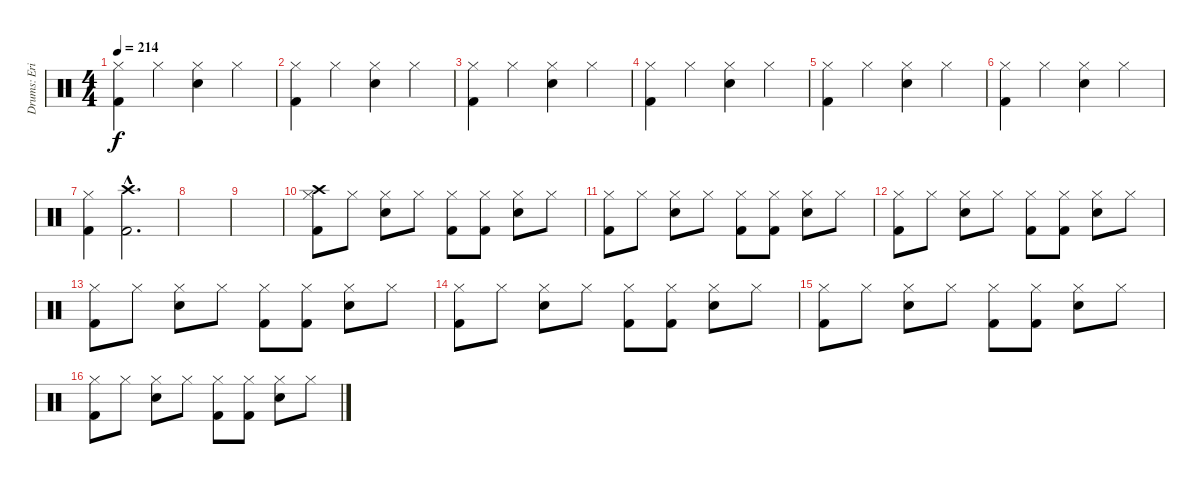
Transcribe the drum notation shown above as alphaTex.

\track ("Drums: Erik Sandin" "Drums: Eri") {instrument percussion}
\staff {score}
\articulation defaults
\ts (4 4)
\tempo 214
\clef neutral
\ks c
("Hi-Hat (closed)" "Kick (hit) 2").4{dy f} "Hi-Hat (closed)".4 ("Hi-Hat (closed)" "Electric Snare (hit)").4 "Hi-Hat (closed)".4 |
("Hi-Hat (closed)" "Kick (hit) 2").4 "Hi-Hat (closed)".4 ("Hi-Hat (closed)" "Electric Snare (hit)").4 "Hi-Hat (closed)".4 |
("Hi-Hat (closed)" "Kick (hit) 2").4 "Hi-Hat (closed)".4 ("Hi-Hat (closed)" "Electric Snare (hit)").4 "Hi-Hat (closed)".4 |
("Hi-Hat (closed)" "Kick (hit) 2").4 "Hi-Hat (closed)".4 ("Hi-Hat (closed)" "Electric Snare (hit)").4 "Hi-Hat (closed)".4 |
("Hi-Hat (closed)" "Kick (hit) 2").4 "Hi-Hat (closed)".4 ("Hi-Hat (closed)" "Electric Snare (hit)").4 "Hi-Hat (closed)".4 |
("Hi-Hat (closed)" "Kick (hit) 2").4 "Hi-Hat (closed)".4 ("Hi-Hat (closed)" "Electric Snare (hit)").4 "Hi-Hat (closed)".4 |
("Hi-Hat (closed)" "Kick (hit) 2").4 ("Crash high (hit)"{hac} "Kick (hit) 2"{hac}).2{d} |
|
|
("Crash high (hit)" "Hi-Hat (closed)" "Kick (hit) 2").8 "Hi-Hat (closed)".8 ("Hi-Hat (closed)" "Electric Snare (hit)").8 "Hi-Hat (closed)".8 ("Hi-Hat (closed)" "Kick (hit) 2").8 ("Hi-Hat (closed)" "Kick (hit) 2").8 ("Hi-Hat (closed)" "Electric Snare (hit)").8 "Hi-Hat (closed)".8 |
("Hi-Hat (closed)" "Kick (hit) 2").8 "Hi-Hat (closed)".8 ("Hi-Hat (closed)" "Electric Snare (hit)").8 "Hi-Hat (closed)".8 ("Hi-Hat (closed)" "Kick (hit) 2").8 ("Hi-Hat (closed)" "Kick (hit) 2").8 ("Hi-Hat (closed)" "Electric Snare (hit)").8 "Hi-Hat (closed)".8 |
("Hi-Hat (closed)" "Kick (hit) 2").8 "Hi-Hat (closed)".8 ("Hi-Hat (closed)" "Electric Snare (hit)").8 "Hi-Hat (closed)".8 ("Hi-Hat (closed)" "Kick (hit) 2").8 ("Hi-Hat (closed)" "Kick (hit) 2").8 ("Hi-Hat (closed)" "Electric Snare (hit)").8 "Hi-Hat (closed)".8 |
("Hi-Hat (closed)" "Kick (hit) 2").8 "Hi-Hat (closed)".8 ("Hi-Hat (closed)" "Electric Snare (hit)").8 "Hi-Hat (closed)".8 ("Hi-Hat (closed)" "Kick (hit) 2").8 ("Hi-Hat (closed)" "Kick (hit) 2").8 ("Hi-Hat (closed)" "Electric Snare (hit)").8 "Hi-Hat (closed)".8 |
("Hi-Hat (closed)" "Kick (hit) 2").8 "Hi-Hat (closed)".8 ("Hi-Hat (closed)" "Electric Snare (hit)").8 "Hi-Hat (closed)".8 ("Hi-Hat (closed)" "Kick (hit) 2").8 ("Hi-Hat (closed)" "Kick (hit) 2").8 ("Hi-Hat (closed)" "Electric Snare (hit)").8 "Hi-Hat (closed)".8 |
("Hi-Hat (closed)" "Kick (hit) 2").8 "Hi-Hat (closed)".8 ("Hi-Hat (closed)" "Electric Snare (hit)").8 "Hi-Hat (closed)".8 ("Hi-Hat (closed)" "Kick (hit) 2").8 ("Hi-Hat (closed)" "Kick (hit) 2").8 ("Hi-Hat (closed)" "Electric Snare (hit)").8 "Hi-Hat (closed)".8 |
("Hi-Hat (closed)" "Kick (hit) 2").8 "Hi-Hat (closed)".8 ("Hi-Hat (closed)" "Electric Snare (hit)").8 "Hi-Hat (closed)".8 ("Hi-Hat (closed)" "Kick (hit) 2").8 ("Hi-Hat (closed)" "Kick (hit) 2").8 ("Hi-Hat (closed)" "Electric Snare (hit)").8 "Hi-Hat (closed)".8
